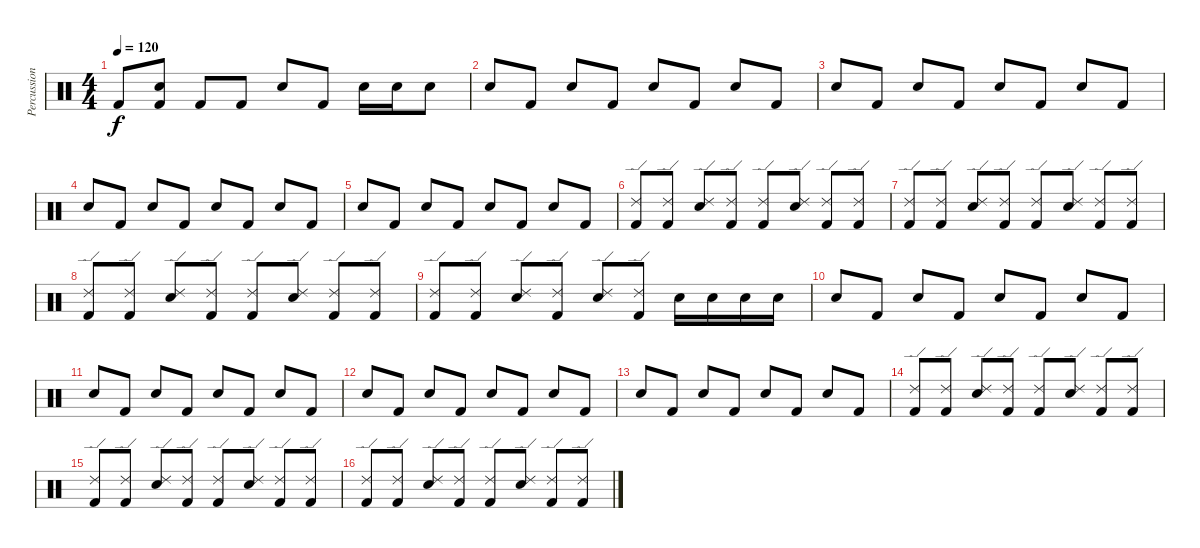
\track ("Percussion" "Percussion") {instrument percussion}
\staff {score}
\articulation defaults
\ts (4 4)
\tempo 120
\clef neutral
\ks c "Kick (hit) 2".8{dy f}
("Kick (hit) 2" "Snare (hit) 2").8 "Kick (hit) 2".8 "Kick (hit) 2".8 "Snare (hit) 2".8 "Kick (hit) 2".8 "Snare (hit) 2".16 "Snare (hit) 2".16 "Snare (hit) 2".8 |
"Snare (hit) 2".8 "Kick (hit) 2".8 "Snare (hit) 2".8 "Kick (hit) 2".8 "Snare (hit) 2".8 "Kick (hit) 2".8 "Snare (hit) 2".8 "Kick (hit) 2".8 |
"Snare (hit) 2".8 "Kick (hit) 2".8 "Snare (hit) 2".8 "Kick (hit) 2".8 "Snare (hit) 2".8 "Kick (hit) 2".8 "Snare (hit) 2".8 "Kick (hit) 2".8 |
"Snare (hit) 2".8 "Kick (hit) 2".8 "Snare (hit) 2".8 "Kick (hit) 2".8 "Snare (hit) 2".8 "Kick (hit) 2".8 "Snare (hit) 2".8 "Kick (hit) 2".8 |
"Snare (hit) 2".8 "Kick (hit) 2".8 "Snare (hit) 2".8 "Kick (hit) 2".8 "Snare (hit) 2".8 "Kick (hit) 2".8 "Snare (hit) 2".8 "Kick (hit) 2".8 |
("Kick (hit) 2" "Ride (edge) 2").8 ("Kick (hit) 2" "Ride (edge) 2").8 ("Snare (hit) 2" "Ride (edge) 2").8 ("Kick (hit) 2" "Ride (edge) 2").8 ("Kick (hit) 2" "Ride (edge) 2").8 ("Snare (hit) 2" "Ride (edge) 2").8 ("Kick (hit) 2" "Ride (edge) 2").8 ("Kick (hit) 2" "Ride (edge) 2").8 |
("Kick (hit) 2" "Ride (edge) 2").8 ("Kick (hit) 2" "Ride (edge) 2").8 ("Snare (hit) 2" "Ride (edge) 2").8 ("Kick (hit) 2" "Ride (edge) 2").8 ("Kick (hit) 2" "Ride (edge) 2").8 ("Snare (hit) 2" "Ride (edge) 2").8 ("Kick (hit) 2" "Ride (edge) 2").8 ("Kick (hit) 2" "Ride (edge) 2").8 |
("Kick (hit) 2" "Ride (edge) 2").8 ("Kick (hit) 2" "Ride (edge) 2").8 ("Snare (hit) 2" "Ride (edge) 2").8 ("Kick (hit) 2" "Ride (edge) 2").8 ("Kick (hit) 2" "Ride (edge) 2").8 ("Snare (hit) 2" "Ride (edge) 2").8 ("Kick (hit) 2" "Ride (edge) 2").8 ("Kick (hit) 2" "Ride (edge) 2").8 |
("Kick (hit) 2" "Ride (edge) 2").8 ("Kick (hit) 2" "Ride (edge) 2").8 ("Snare (hit) 2" "Ride (edge) 2").8 ("Kick (hit) 2" "Ride (edge) 2").8 ("Snare (hit) 2" "Ride (edge) 2").8 ("Kick (hit) 2" "Ride (edge) 2").8 "Snare (hit) 2".16 "Snare (hit) 2".16 "Snare (hit) 2".16 "Snare (hit) 2".16 |
"Snare (hit) 2".8 "Kick (hit) 2".8 "Snare (hit) 2".8 "Kick (hit) 2".8 "Snare (hit) 2".8 "Kick (hit) 2".8 "Snare (hit) 2".8 "Kick (hit) 2".8 |
"Snare (hit) 2".8 "Kick (hit) 2".8 "Snare (hit) 2".8 "Kick (hit) 2".8 "Snare (hit) 2".8 "Kick (hit) 2".8 "Snare (hit) 2".8 "Kick (hit) 2".8 |
"Snare (hit) 2".8 "Kick (hit) 2".8 "Snare (hit) 2".8 "Kick (hit) 2".8 "Snare (hit) 2".8 "Kick (hit) 2".8 "Snare (hit) 2".8 "Kick (hit) 2".8 |
"Snare (hit) 2".8 "Kick (hit) 2".8 "Snare (hit) 2".8 "Kick (hit) 2".8 "Snare (hit) 2".8 "Kick (hit) 2".8 "Snare (hit) 2".8 "Kick (hit) 2".8 |
("Kick (hit) 2" "Ride (edge) 2").8 ("Kick (hit) 2" "Ride (edge) 2").8 ("Snare (hit) 2" "Ride (edge) 2").8 ("Kick (hit) 2" "Ride (edge) 2").8 ("Kick (hit) 2" "Ride (edge) 2").8 ("Snare (hit) 2" "Ride (edge) 2").8 ("Kick (hit) 2" "Ride (edge) 2").8 ("Kick (hit) 2" "Ride (edge) 2").8 |
("Kick (hit) 2" "Ride (edge) 2").8 ("Kick (hit) 2" "Ride (edge) 2").8 ("Snare (hit) 2" "Ride (edge) 2").8 ("Kick (hit) 2" "Ride (edge) 2").8 ("Kick (hit) 2" "Ride (edge) 2").8 ("Snare (hit) 2" "Ride (edge) 2").8 ("Kick (hit) 2" "Ride (edge) 2").8 ("Kick (hit) 2" "Ride (edge) 2").8 |
("Kick (hit) 2" "Ride (edge) 2").8 ("Kick (hit) 2" "Ride (edge) 2").8 ("Snare (hit) 2" "Ride (edge) 2").8 ("Kick (hit) 2" "Ride (edge) 2").8 ("Kick (hit) 2" "Ride (edge) 2").8 ("Snare (hit) 2" "Ride (edge) 2").8 ("Kick (hit) 2" "Ride (edge) 2").8 ("Kick (hit) 2" "Ride (edge) 2").8
